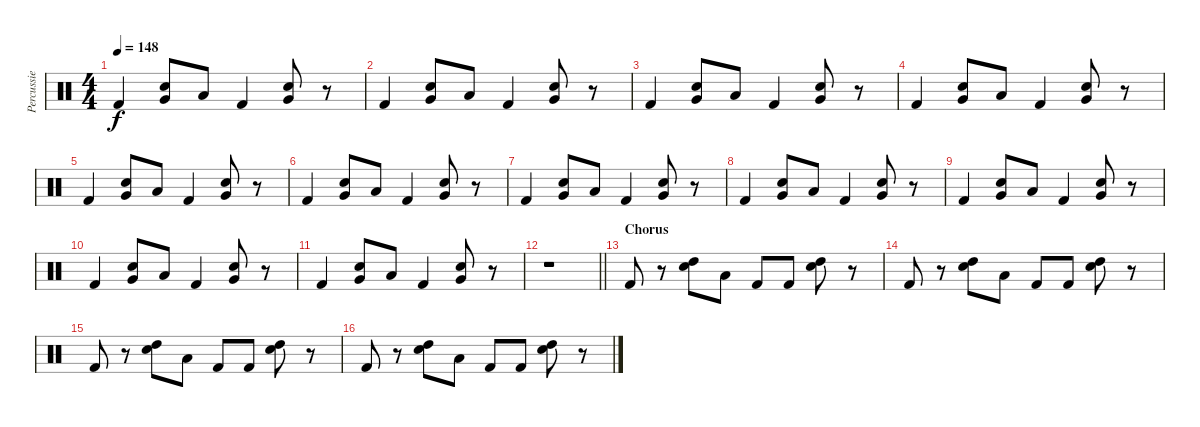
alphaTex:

\track ("Percussie" "Percussie") {instrument percussion}
\staff {score}
\articulation defaults
\ts (4 4)
\tempo 148
\clef neutral
\ks c "Kick (hit) 2".4{dy f}
("Very Low Tom (hit)" "Electric Snare (hit)").8 "Low Tom (hit)".8 "Kick (hit) 2".4 ("Very Low Tom (hit)" "Electric Snare (hit)").8 r.8 |
"Kick (hit) 2".4 ("Very Low Tom (hit)" "Electric Snare (hit)").8 "Low Tom (hit)".8 "Kick (hit) 2".4 ("Very Low Tom (hit)" "Electric Snare (hit)").8 r.8 |
"Kick (hit) 2".4 ("Very Low Tom (hit)" "Electric Snare (hit)").8 "Low Tom (hit)".8 "Kick (hit) 2".4 ("Very Low Tom (hit)" "Electric Snare (hit)").8 r.8 |
"Kick (hit) 2".4 ("Very Low Tom (hit)" "Electric Snare (hit)").8 "Low Tom (hit)".8 "Kick (hit) 2".4 ("Very Low Tom (hit)" "Electric Snare (hit)").8 r.8 |
"Kick (hit) 2".4 ("Very Low Tom (hit)" "Electric Snare (hit)").8 "Low Tom (hit)".8 "Kick (hit) 2".4 ("Very Low Tom (hit)" "Electric Snare (hit)").8 r.8 |
"Kick (hit) 2".4 ("Very Low Tom (hit)" "Electric Snare (hit)").8 "Low Tom (hit)".8 "Kick (hit) 2".4 ("Very Low Tom (hit)" "Electric Snare (hit)").8 r.8 |
"Kick (hit) 2".4 ("Very Low Tom (hit)" "Electric Snare (hit)").8 "Low Tom (hit)".8 "Kick (hit) 2".4 ("Very Low Tom (hit)" "Electric Snare (hit)").8 r.8 |
"Kick (hit) 2".4 ("Very Low Tom (hit)" "Electric Snare (hit)").8 "Low Tom (hit)".8 "Kick (hit) 2".4 ("Very Low Tom (hit)" "Electric Snare (hit)").8 r.8 |
"Kick (hit) 2".4 ("Very Low Tom (hit)" "Electric Snare (hit)").8 "Low Tom (hit)".8 "Kick (hit) 2".4 ("Very Low Tom (hit)" "Electric Snare (hit)").8 r.8 |
"Kick (hit) 2".4 ("Very Low Tom (hit)" "Electric Snare (hit)").8 "Low Tom (hit)".8 "Kick (hit) 2".4 ("Very Low Tom (hit)" "Electric Snare (hit)").8 r.8 |
"Kick (hit) 2".4 ("Very Low Tom (hit)" "Electric Snare (hit)").8 "Low Tom (hit)".8 "Kick (hit) 2".4 ("Very Low Tom (hit)" "Electric Snare (hit)").8 r.8 |
\barLineRight lightlight
r.1 |
\section ("" "Chorus")
"Kick (hit) 2".8 r.8 ("Electric Snare (hit)" "High Tom (hit)").8 "Low Tom (hit)".8 "Kick (hit) 2".8 "Kick (hit) 2".8 ("Electric Snare (hit)" "High Tom (hit)").8 r.8 |
"Kick (hit) 2".8 r.8 ("Electric Snare (hit)" "High Tom (hit)").8 "Low Tom (hit)".8 "Kick (hit) 2".8 "Kick (hit) 2".8 ("Electric Snare (hit)" "High Tom (hit)").8 r.8 |
"Kick (hit) 2".8 r.8 ("Electric Snare (hit)" "High Tom (hit)").8 "Low Tom (hit)".8 "Kick (hit) 2".8 "Kick (hit) 2".8 ("Electric Snare (hit)" "High Tom (hit)").8 r.8 |
"Kick (hit) 2".8 r.8 ("Electric Snare (hit)" "High Tom (hit)").8 "Low Tom (hit)".8 "Kick (hit) 2".8 "Kick (hit) 2".8 ("Electric Snare (hit)" "High Tom (hit)").8 r.8
